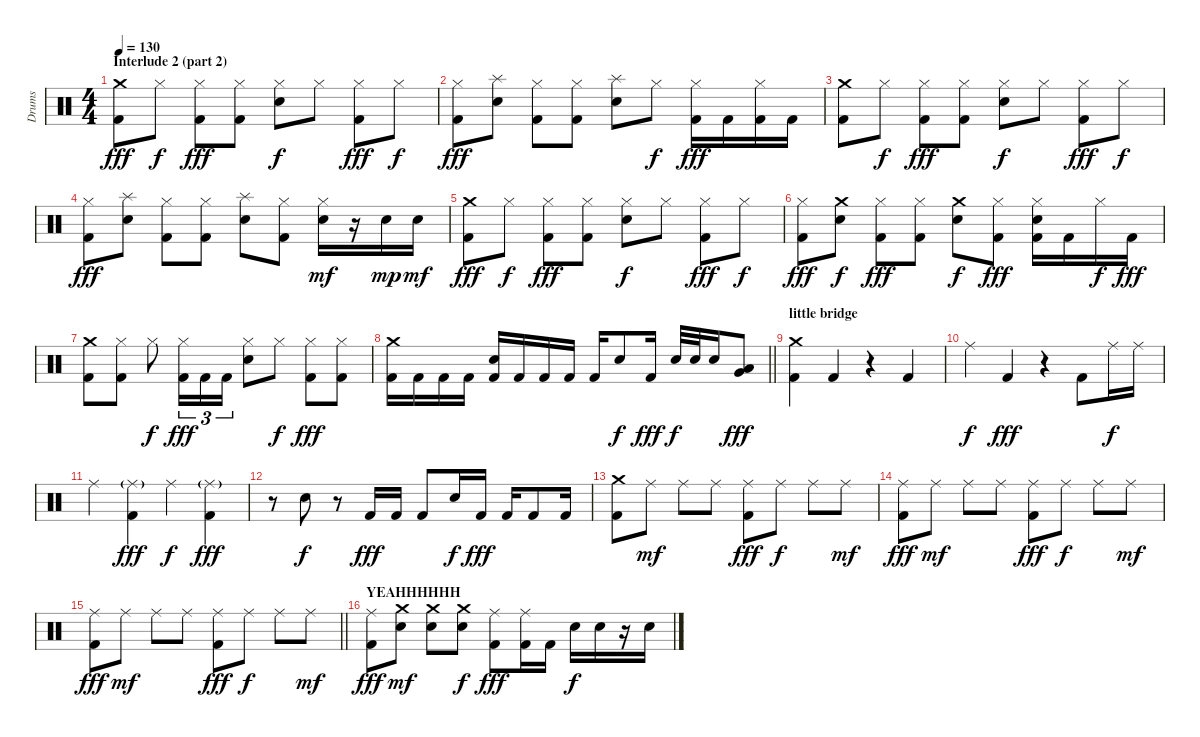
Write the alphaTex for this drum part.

\track ("Drums" "Drums") {instrument percussion}
\staff {score}
\articulation defaults
\ts (4 4)
\section ("" "Interlude 2 (part 2)")
\tempo 130
\clef neutral
\ks c
("Crash medium (hit)" "Kick (hit) 2").8{dy fff} "Hi-Hat (closed)".8{dy f} ("Hi-Hat (closed)" "Kick (hit) 2").8{dy fff} ("Hi-Hat (closed)" "Kick (hit) 2").8 ("Hi-Hat (closed)" "Snare (hit) 2").8{dy f} "Hi-Hat (closed)".8 ("Hi-Hat (closed)" "Kick (hit) 2").8{dy fff} "Hi-Hat (closed)".8{dy f} |
("Hi-Hat (closed)" "Kick (hit) 2").8{dy fff} ("Splash (hit)" "Snare (hit) 2").8 ("Hi-Hat (closed)" "Kick (hit) 2").8 ("Hi-Hat (closed)" "Kick (hit) 2").8 ("Splash (hit)" "Snare (hit) 2").8 "Hi-Hat (closed)".8{dy f} ("Hi-Hat (closed)" "Kick (hit) 2").16{dy fff} "Kick (hit) 2".16 ("Hi-Hat (closed)" "Kick (hit) 2").16 "Kick (hit) 2".16 |
("Crash medium (hit)" "Kick (hit) 2").8 "Hi-Hat (closed)".8{dy f} ("Hi-Hat (closed)" "Kick (hit) 2").8{dy fff} ("Hi-Hat (closed)" "Kick (hit) 2").8 ("Hi-Hat (closed)" "Snare (hit) 2").8{dy f} "Hi-Hat (closed)".8 ("Hi-Hat (closed)" "Kick (hit) 2").8{dy fff} "Hi-Hat (closed)".8{dy f} |
("Hi-Hat (closed)" "Kick (hit) 2").8{dy fff} ("Splash (hit)" "Snare (hit) 2").8 ("Hi-Hat (closed)" "Kick (hit) 2").8 ("Hi-Hat (closed)" "Kick (hit) 2").8 ("Splash (hit)" "Snare (hit) 2").8 ("Hi-Hat (closed)" "Kick (hit) 2").8 ("Hi-Hat (closed)" "Snare (hit) 2").16{dy mf} r.16 "Snare (hit) 2".16{dy mp} "Snare (hit) 2".16{dy mf} |
("Crash medium (hit)" "Kick (hit) 2").8{dy fff} "Hi-Hat (closed)".8{dy f} ("Hi-Hat (closed)" "Kick (hit) 2").8{dy fff} ("Hi-Hat (closed)" "Kick (hit) 2").8 ("Hi-Hat (closed)" "Snare (hit) 2").8{dy f} "Hi-Hat (closed)".8 ("Hi-Hat (closed)" "Kick (hit) 2").8{dy fff} "Hi-Hat (closed)".8{dy f} |
("Hi-Hat (closed)" "Kick (hit) 2").8{dy fff} ("Crash medium (hit)" "Snare (hit) 2").8{dy f} ("Hi-Hat (closed)" "Kick (hit) 2").8{dy fff} ("Hi-Hat (closed)" "Kick (hit) 2").8 ("Crash medium (hit)" "Snare (hit) 2").8{dy f} ("Hi-Hat (closed)" "Kick (hit) 2").8{dy fff} ("Hi-Hat (closed)" "Snare (hit) 2" "Kick (hit) 2").16 "Kick (hit) 2".16 "Hi-Hat (closed)".16{dy f} "Kick (hit) 2".16{dy fff} |
("Crash medium (hit)" "Kick (hit) 2").8 ("Hi-Hat (closed)" "Kick (hit) 2").8 "Hi-Hat (closed)".8{dy f} ("Hi-Hat (closed)" "Kick (hit) 2").16{tu (3 2) dy fff} "Kick (hit) 2".16{tu (3 2)} "Kick (hit) 2".16{tu (3 2)} ("Hi-Hat (closed)" "Snare (hit) 2").8 "Hi-Hat (closed)".8{dy f} ("Hi-Hat (closed)" "Kick (hit) 2").8{dy fff} ("Hi-Hat (closed)" "Kick (hit) 2").8 |
\barLineRight lightlight
("Crash medium (hit)" "Kick (hit) 2").16 "Kick (hit) 2".16 "Kick (hit) 2".16 "Kick (hit) 2".16 ("Snare (hit) 2" "Kick (hit) 2").16 "Kick (hit) 2".16 "Kick (hit) 2".16 "Kick (hit) 2".16 "Kick (hit) 2".16 "Snare (hit) 2".8{dy f} "Kick (hit) 2".16{dy fff} "Snare (hit) 2".32{dy f} "Snare (hit) 2".32 "Snare (hit) 2".16 ("Low Tom (hit)" "Very Low Tom (hit)").8{dy fff} |
\section ("" "little bridge ")
("Crash medium (hit)" "Kick (hit) 2").4 "Kick (hit) 2".4 r.4 "Kick (hit) 2".4 |
"Ride (middle)".4{dy f} "Kick (hit) 2".4{dy fff} r.4 "Kick (hit) 2".8 "Ride (middle)".16{dy f} "Ride (middle)".16 |
"Ride (middle)".4 ("Ride (middle)"{g} "Kick (hit) 2").4{dy fff} "Ride (middle)".4{dy f} ("Ride (middle)"{g} "Kick (hit) 2").4{dy fff} |
r.8 "Snare (hit) 2".8{dy f} r.8 "Kick (hit) 2".16{dy fff} "Kick (hit) 2".16 "Kick (hit) 2".8 "Snare (hit) 2".16{dy f} "Kick (hit) 2".16{dy fff} "Kick (hit) 2".16 "Kick (hit) 2".8 "Kick (hit) 2".16 |
("Crash medium (hit)" "Kick (hit) 2").8 "Ride (middle)".8{dy mf} "Ride (middle)".8 "Ride (middle)".8 ("Ride (middle)" "Kick (hit) 2").8{dy fff} "Ride (middle)".8{dy f} "Ride (middle)".8 "Ride (middle)".8{dy mf} |
("Ride (middle)" "Kick (hit) 2").8{dy fff} "Ride (middle)".8{dy mf} "Ride (middle)".8 "Ride (middle)".8 ("Ride (middle)" "Kick (hit) 2").8{dy fff} "Ride (middle)".8{dy f} "Ride (middle)".8 "Ride (middle)".8{dy mf} |
\barLineRight lightlight
("Ride (middle)" "Kick (hit) 2").8{dy fff} "Ride (middle)".8{dy mf} "Ride (middle)".8 "Ride (middle)".8 ("Ride (middle)" "Kick (hit) 2").8{dy fff} "Ride (middle)".8{dy f} "Ride (middle)".8 "Ride (middle)".8{dy mf} |
\section ("" "YEAHHHHHH")
("Ride (middle)" "Kick (hit) 2").8{dy fff} ("Crash medium (hit)" "Snare (hit) 2").8{dy mf} ("Crash medium (hit)" "Snare (hit) 2").8 ("Crash medium (hit)" "Snare (hit) 2").8{dy f} ("Ride (middle)" "Kick (hit) 2").8{dy fff} ("Ride (middle)" "Kick (hit) 2").16 "Kick (hit) 2".16 "Snare (hit) 2".16{dy f} "Snare (hit) 2".16 r.16 "Snare (hit) 2".16
